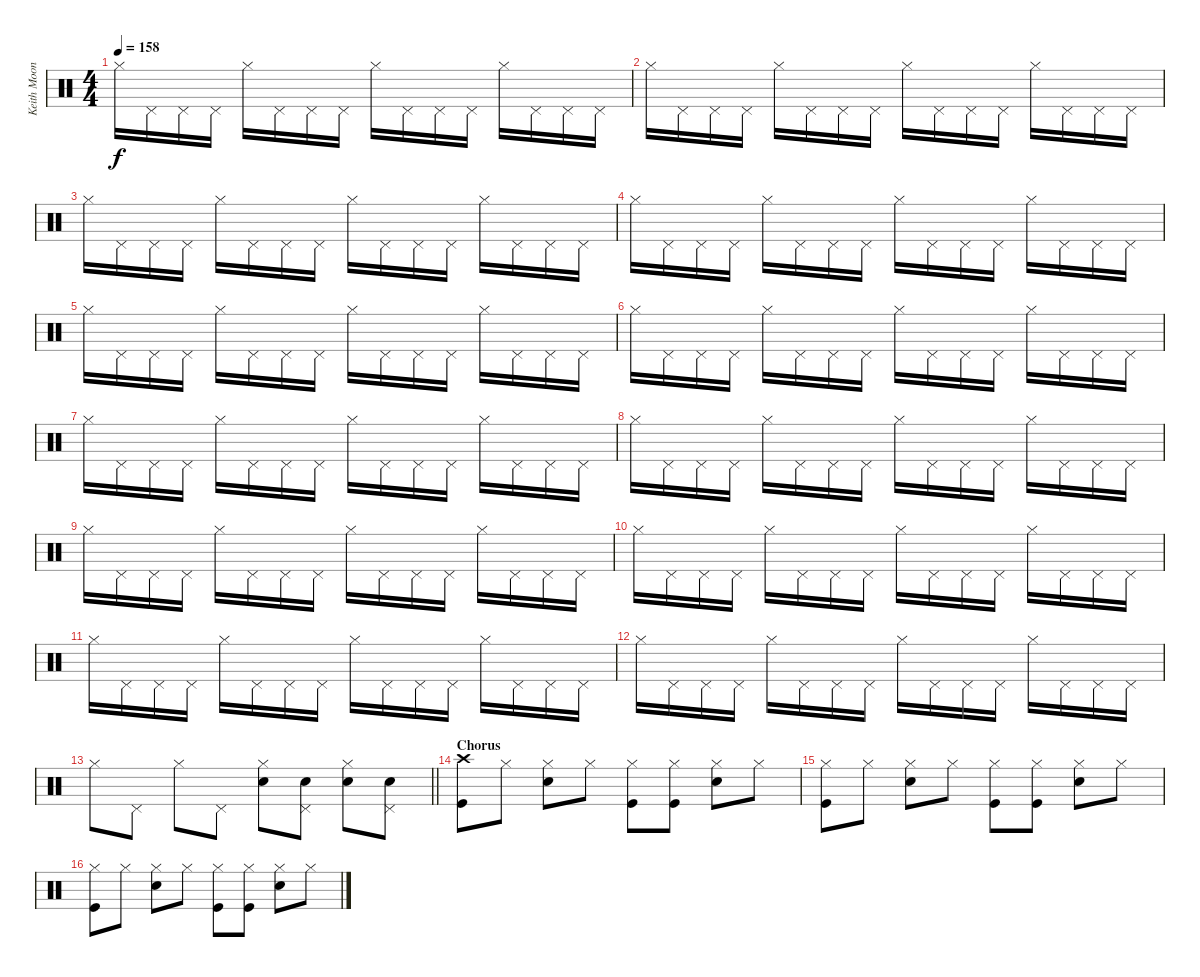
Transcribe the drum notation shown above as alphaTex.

\track ("Keith Moon" "Keith Moon") {instrument percussion}
\staff {score}
\articulation defaults
\ts (4 4)
\tempo 158
\clef neutral
\ks c "Hi-Hat (closed)".16{dy f} "Pedal Hi-Hat (hit)".16 "Pedal Hi-Hat (hit)".16 "Pedal Hi-Hat (hit)".16 "Hi-Hat (closed)".16 "Pedal Hi-Hat (hit)".16 "Pedal Hi-Hat (hit)".16 "Pedal Hi-Hat (hit)".16 "Hi-Hat (closed)".16 "Pedal Hi-Hat (hit)".16 "Pedal Hi-Hat (hit)".16 "Pedal Hi-Hat (hit)".16 "Hi-Hat (closed)".16 "Pedal Hi-Hat (hit)".16 "Pedal Hi-Hat (hit)".16 "Pedal Hi-Hat (hit)".16
|
"Hi-Hat (closed)".16 "Pedal Hi-Hat (hit)".16 "Pedal Hi-Hat (hit)".16 "Pedal Hi-Hat (hit)".16 "Hi-Hat (closed)".16 "Pedal Hi-Hat (hit)".16 "Pedal Hi-Hat (hit)".16 "Pedal Hi-Hat (hit)".16 "Hi-Hat (closed)".16 "Pedal Hi-Hat (hit)".16 "Pedal Hi-Hat (hit)".16 "Pedal Hi-Hat (hit)".16 "Hi-Hat (closed)".16 "Pedal Hi-Hat (hit)".16 "Pedal Hi-Hat (hit)".16 "Pedal Hi-Hat (hit)".16 |
"Hi-Hat (closed)".16 "Pedal Hi-Hat (hit)".16 "Pedal Hi-Hat (hit)".16 "Pedal Hi-Hat (hit)".16 "Hi-Hat (closed)".16 "Pedal Hi-Hat (hit)".16 "Pedal Hi-Hat (hit)".16 "Pedal Hi-Hat (hit)".16 "Hi-Hat (closed)".16 "Pedal Hi-Hat (hit)".16 "Pedal Hi-Hat (hit)".16 "Pedal Hi-Hat (hit)".16 "Hi-Hat (closed)".16 "Pedal Hi-Hat (hit)".16 "Pedal Hi-Hat (hit)".16 "Pedal Hi-Hat (hit)".16 |
"Hi-Hat (closed)".16 "Pedal Hi-Hat (hit)".16 "Pedal Hi-Hat (hit)".16 "Pedal Hi-Hat (hit)".16 "Hi-Hat (closed)".16 "Pedal Hi-Hat (hit)".16 "Pedal Hi-Hat (hit)".16 "Pedal Hi-Hat (hit)".16 "Hi-Hat (closed)".16 "Pedal Hi-Hat (hit)".16 "Pedal Hi-Hat (hit)".16 "Pedal Hi-Hat (hit)".16 "Hi-Hat (closed)".16 "Pedal Hi-Hat (hit)".16 "Pedal Hi-Hat (hit)".16 "Pedal Hi-Hat (hit)".16 |
"Hi-Hat (closed)".16 "Pedal Hi-Hat (hit)".16 "Pedal Hi-Hat (hit)".16 "Pedal Hi-Hat (hit)".16 "Hi-Hat (closed)".16 "Pedal Hi-Hat (hit)".16 "Pedal Hi-Hat (hit)".16 "Pedal Hi-Hat (hit)".16 "Hi-Hat (closed)".16 "Pedal Hi-Hat (hit)".16 "Pedal Hi-Hat (hit)".16 "Pedal Hi-Hat (hit)".16 "Hi-Hat (closed)".16 "Pedal Hi-Hat (hit)".16 "Pedal Hi-Hat (hit)".16 "Pedal Hi-Hat (hit)".16 |
"Hi-Hat (closed)".16 "Pedal Hi-Hat (hit)".16 "Pedal Hi-Hat (hit)".16 "Pedal Hi-Hat (hit)".16 "Hi-Hat (closed)".16 "Pedal Hi-Hat (hit)".16 "Pedal Hi-Hat (hit)".16 "Pedal Hi-Hat (hit)".16 "Hi-Hat (closed)".16 "Pedal Hi-Hat (hit)".16 "Pedal Hi-Hat (hit)".16 "Pedal Hi-Hat (hit)".16 "Hi-Hat (closed)".16 "Pedal Hi-Hat (hit)".16 "Pedal Hi-Hat (hit)".16 "Pedal Hi-Hat (hit)".16 |
"Hi-Hat (closed)".16 "Pedal Hi-Hat (hit)".16 "Pedal Hi-Hat (hit)".16 "Pedal Hi-Hat (hit)".16 "Hi-Hat (closed)".16 "Pedal Hi-Hat (hit)".16 "Pedal Hi-Hat (hit)".16 "Pedal Hi-Hat (hit)".16 "Hi-Hat (closed)".16 "Pedal Hi-Hat (hit)".16 "Pedal Hi-Hat (hit)".16 "Pedal Hi-Hat (hit)".16 "Hi-Hat (closed)".16 "Pedal Hi-Hat (hit)".16 "Pedal Hi-Hat (hit)".16 "Pedal Hi-Hat (hit)".16 |
"Hi-Hat (closed)".16 "Pedal Hi-Hat (hit)".16 "Pedal Hi-Hat (hit)".16 "Pedal Hi-Hat (hit)".16 "Hi-Hat (closed)".16 "Pedal Hi-Hat (hit)".16 "Pedal Hi-Hat (hit)".16 "Pedal Hi-Hat (hit)".16 "Hi-Hat (closed)".16 "Pedal Hi-Hat (hit)".16 "Pedal Hi-Hat (hit)".16 "Pedal Hi-Hat (hit)".16 "Hi-Hat (closed)".16 "Pedal Hi-Hat (hit)".16 "Pedal Hi-Hat (hit)".16 "Pedal Hi-Hat (hit)".16 |
"Hi-Hat (closed)".16 "Pedal Hi-Hat (hit)".16 "Pedal Hi-Hat (hit)".16 "Pedal Hi-Hat (hit)".16 "Hi-Hat (closed)".16 "Pedal Hi-Hat (hit)".16 "Pedal Hi-Hat (hit)".16 "Pedal Hi-Hat (hit)".16 "Hi-Hat (closed)".16 "Pedal Hi-Hat (hit)".16 "Pedal Hi-Hat (hit)".16 "Pedal Hi-Hat (hit)".16 "Hi-Hat (closed)".16 "Pedal Hi-Hat (hit)".16 "Pedal Hi-Hat (hit)".16 "Pedal Hi-Hat (hit)".16 |
"Hi-Hat (closed)".16 "Pedal Hi-Hat (hit)".16 "Pedal Hi-Hat (hit)".16 "Pedal Hi-Hat (hit)".16 "Hi-Hat (closed)".16 "Pedal Hi-Hat (hit)".16 "Pedal Hi-Hat (hit)".16 "Pedal Hi-Hat (hit)".16 "Hi-Hat (closed)".16 "Pedal Hi-Hat (hit)".16 "Pedal Hi-Hat (hit)".16 "Pedal Hi-Hat (hit)".16 "Hi-Hat (closed)".16 "Pedal Hi-Hat (hit)".16 "Pedal Hi-Hat (hit)".16 "Pedal Hi-Hat (hit)".16 |
"Hi-Hat (closed)".16 "Pedal Hi-Hat (hit)".16 "Pedal Hi-Hat (hit)".16 "Pedal Hi-Hat (hit)".16 "Hi-Hat (closed)".16 "Pedal Hi-Hat (hit)".16 "Pedal Hi-Hat (hit)".16 "Pedal Hi-Hat (hit)".16 "Hi-Hat (closed)".16 "Pedal Hi-Hat (hit)".16 "Pedal Hi-Hat (hit)".16 "Pedal Hi-Hat (hit)".16 "Hi-Hat (closed)".16 "Pedal Hi-Hat (hit)".16 "Pedal Hi-Hat (hit)".16 "Pedal Hi-Hat (hit)".16 |
"Hi-Hat (closed)".16 "Pedal Hi-Hat (hit)".16 "Pedal Hi-Hat (hit)".16 "Pedal Hi-Hat (hit)".16 "Hi-Hat (closed)".16 "Pedal Hi-Hat (hit)".16 "Pedal Hi-Hat (hit)".16 "Pedal Hi-Hat (hit)".16 "Hi-Hat (closed)".16 "Pedal Hi-Hat (hit)".16 "Pedal Hi-Hat (hit)".16 "Pedal Hi-Hat (hit)".16 "Hi-Hat (closed)".16 "Pedal Hi-Hat (hit)".16 "Pedal Hi-Hat (hit)".16 "Pedal Hi-Hat (hit)".16 |
\barLineRight lightlight "Hi-Hat (closed)".8 "Pedal Hi-Hat (hit)".8 "Hi-Hat (closed)".8 "Pedal Hi-Hat (hit)".8
("Hi-Hat (closed)" "Snare (hit) 2").8 ("Pedal Hi-Hat (hit)" "Snare (hit) 2").8 ("Hi-Hat (closed)" "Snare (hit) 2").8 ("Pedal Hi-Hat (hit)" "Snare (hit) 2").8 |
\section ("" "Chorus")
("Crash high (hit)" "Kick (hit)").8 "Hi-Hat (closed)".8 ("Hi-Hat (closed)" "Snare (hit) 2").8 "Hi-Hat (closed)".8 ("Hi-Hat (closed)" "Kick (hit)").8 ("Hi-Hat (closed)" "Kick (hit)").8 ("Hi-Hat (closed)" "Snare (hit) 2").8 "Hi-Hat (closed)".8 |
("Hi-Hat (closed)" "Kick (hit)").8 "Hi-Hat (closed)".8 ("Hi-Hat (closed)" "Snare (hit) 2").8 "Hi-Hat (closed)".8 ("Hi-Hat (closed)" "Kick (hit)").8 ("Hi-Hat (closed)" "Kick (hit)").8 ("Hi-Hat (closed)" "Snare (hit) 2").8 "Hi-Hat (closed)".8 |
("Hi-Hat (closed)" "Kick (hit)").8 "Hi-Hat (closed)".8 ("Hi-Hat (closed)" "Snare (hit) 2").8 "Hi-Hat (closed)".8 ("Hi-Hat (closed)" "Kick (hit)").8 ("Hi-Hat (closed)" "Kick (hit)").8 ("Hi-Hat (closed)" "Snare (hit) 2").8 "Hi-Hat (closed)".8
